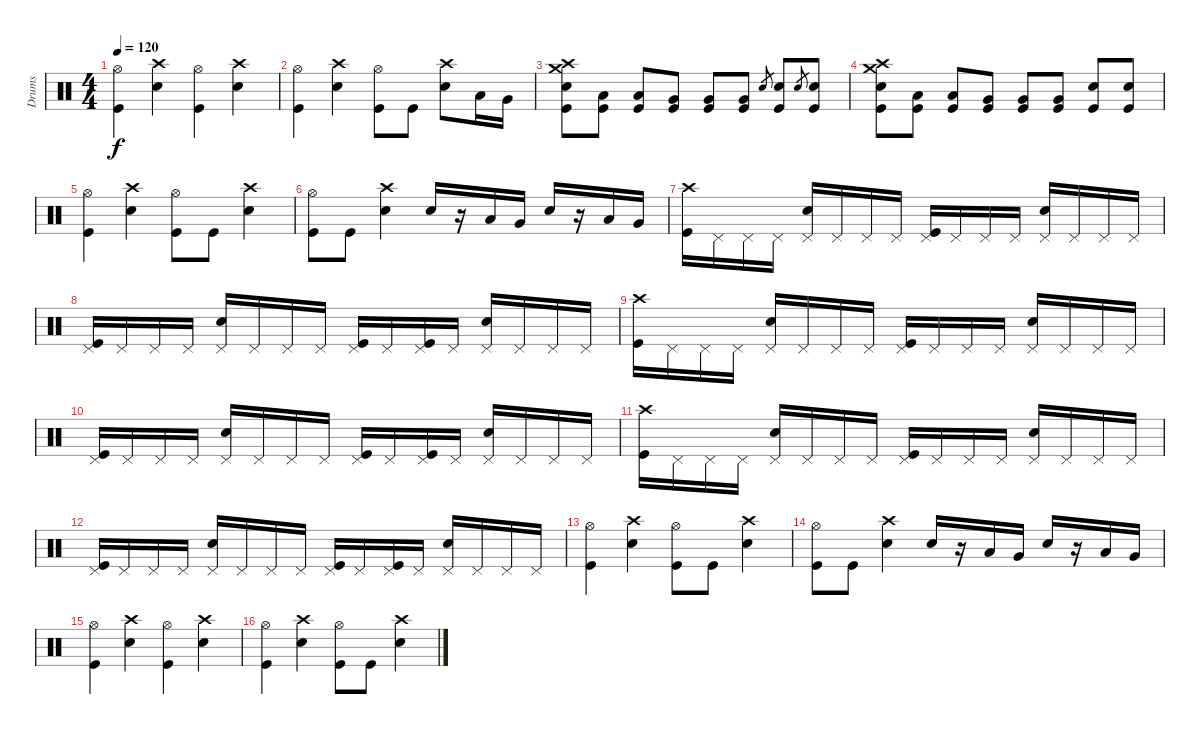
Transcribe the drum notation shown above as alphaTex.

\track ("Drums" "Drums") {instrument percussion}
\staff {score}
\articulation defaults
\ts (4 4)
\tempo 120
\clef neutral
\ks c
("Hi-Hat (open)" "Kick (hit)").4{dy f} ("Crash high (hit)" "Snare (hit) 2").4 ("Hi-Hat (open)" "Kick (hit)").4 ("Crash high (hit)" "Snare (hit) 2").4 |
("Hi-Hat (open)" "Kick (hit)").4 ("Crash high (hit)" "Snare (hit) 2").4 ("Hi-Hat (open)" "Kick (hit)").8 "Kick (hit)".8 ("Crash high (hit)" "Snare (hit) 2").8 "Low Tom (hit)".16 "Very Low Tom (hit)".16 |
("Crash high (hit)" "Crash medium (hit)" "Snare (hit) 2" "Kick (hit)").8 ("Low Tom (hit)" "Kick (hit)").8 ("Low Tom (hit)" "Kick (hit)").8 ("Very Low Tom (hit)" "Kick (hit)").8 ("Very Low Tom (hit)" "Kick (hit)").8 ("Very Low Tom (hit)" "Kick (hit)").8 "Snare (hit) 2".8{gr} ("Snare (hit) 2" "Kick (hit)").8 "Snare (hit) 2".8{gr} ("Snare (hit) 2" "Kick (hit)").8 |
("Crash high (hit)" "Crash medium (hit)" "Snare (hit) 2" "Kick (hit)").8 ("Low Tom (hit)" "Kick (hit)").8 ("Low Tom (hit)" "Kick (hit)").8 ("Very Low Tom (hit)" "Kick (hit)").8 ("Very Low Tom (hit)" "Kick (hit)").8 ("Very Low Tom (hit)" "Kick (hit)").8 ("Snare (hit) 2" "Kick (hit)").8 ("Snare (hit) 2" "Kick (hit)").8 |
("Hi-Hat (open)" "Kick (hit)").4 ("Crash high (hit)" "Snare (hit) 2").4 ("Hi-Hat (open)" "Kick (hit)").8 "Kick (hit)".8 ("Crash high (hit)" "Snare (hit) 2").4 |
("Hi-Hat (open)" "Kick (hit)").8 "Kick (hit)".8 ("Crash high (hit)" "Snare (hit) 2").4 "Snare (hit) 2".16 r.16 "Low Tom (hit)".16 "Very Low Tom (hit)".16 "Snare (hit) 2".16 r.16 "Low Tom (hit)".16 "Very Low Tom (hit)".16 |
("Crash high (hit)" "Kick (hit)").16 "Pedal Hi-Hat (hit)".16 "Pedal Hi-Hat (hit)".16 "Pedal Hi-Hat (hit)".16 ("Pedal Hi-Hat (hit)" "Snare (hit) 2").16 "Pedal Hi-Hat (hit)".16 "Pedal Hi-Hat (hit)".16 "Pedal Hi-Hat (hit)".16 ("Pedal Hi-Hat (hit)" "Kick (hit)").16 "Pedal Hi-Hat (hit)".16 "Pedal Hi-Hat (hit)".16 "Pedal Hi-Hat (hit)".16 ("Pedal Hi-Hat (hit)" "Snare (hit) 2").16 "Pedal Hi-Hat (hit)".16 "Pedal Hi-Hat (hit)".16 "Pedal Hi-Hat (hit)".16 |
("Pedal Hi-Hat (hit)" "Kick (hit)").16 "Pedal Hi-Hat (hit)".16 "Pedal Hi-Hat (hit)".16 "Pedal Hi-Hat (hit)".16 ("Pedal Hi-Hat (hit)" "Snare (hit) 2").16 "Pedal Hi-Hat (hit)".16 "Pedal Hi-Hat (hit)".16 "Pedal Hi-Hat (hit)".16 ("Pedal Hi-Hat (hit)" "Kick (hit)").16 "Pedal Hi-Hat (hit)".16 ("Pedal Hi-Hat (hit)" "Kick (hit)").16 "Pedal Hi-Hat (hit)".16 ("Pedal Hi-Hat (hit)" "Snare (hit) 2").16 "Pedal Hi-Hat (hit)".16 "Pedal Hi-Hat (hit)".16 "Pedal Hi-Hat (hit)".16 |
("Crash high (hit)" "Kick (hit)").16 "Pedal Hi-Hat (hit)".16 "Pedal Hi-Hat (hit)".16 "Pedal Hi-Hat (hit)".16 ("Pedal Hi-Hat (hit)" "Snare (hit) 2").16 "Pedal Hi-Hat (hit)".16 "Pedal Hi-Hat (hit)".16 "Pedal Hi-Hat (hit)".16 ("Pedal Hi-Hat (hit)" "Kick (hit)").16 "Pedal Hi-Hat (hit)".16 "Pedal Hi-Hat (hit)".16 "Pedal Hi-Hat (hit)".16 ("Pedal Hi-Hat (hit)" "Snare (hit) 2").16 "Pedal Hi-Hat (hit)".16 "Pedal Hi-Hat (hit)".16 "Pedal Hi-Hat (hit)".16 |
("Pedal Hi-Hat (hit)" "Kick (hit)").16 "Pedal Hi-Hat (hit)".16 "Pedal Hi-Hat (hit)".16 "Pedal Hi-Hat (hit)".16 ("Pedal Hi-Hat (hit)" "Snare (hit) 2").16 "Pedal Hi-Hat (hit)".16 "Pedal Hi-Hat (hit)".16 "Pedal Hi-Hat (hit)".16 ("Pedal Hi-Hat (hit)" "Kick (hit)").16 "Pedal Hi-Hat (hit)".16 ("Pedal Hi-Hat (hit)" "Kick (hit)").16 "Pedal Hi-Hat (hit)".16 ("Pedal Hi-Hat (hit)" "Snare (hit) 2").16 "Pedal Hi-Hat (hit)".16 "Pedal Hi-Hat (hit)".16 "Pedal Hi-Hat (hit)".16 |
("Crash high (hit)" "Kick (hit)").16 "Pedal Hi-Hat (hit)".16 "Pedal Hi-Hat (hit)".16 "Pedal Hi-Hat (hit)".16 ("Pedal Hi-Hat (hit)" "Snare (hit) 2").16 "Pedal Hi-Hat (hit)".16 "Pedal Hi-Hat (hit)".16 "Pedal Hi-Hat (hit)".16 ("Pedal Hi-Hat (hit)" "Kick (hit)").16 "Pedal Hi-Hat (hit)".16 "Pedal Hi-Hat (hit)".16 "Pedal Hi-Hat (hit)".16 ("Pedal Hi-Hat (hit)" "Snare (hit) 2").16 "Pedal Hi-Hat (hit)".16 "Pedal Hi-Hat (hit)".16 "Pedal Hi-Hat (hit)".16 |
("Pedal Hi-Hat (hit)" "Kick (hit)").16 "Pedal Hi-Hat (hit)".16 "Pedal Hi-Hat (hit)".16 "Pedal Hi-Hat (hit)".16 ("Pedal Hi-Hat (hit)" "Snare (hit) 2").16 "Pedal Hi-Hat (hit)".16 "Pedal Hi-Hat (hit)".16 "Pedal Hi-Hat (hit)".16 ("Pedal Hi-Hat (hit)" "Kick (hit)").16 "Pedal Hi-Hat (hit)".16 ("Pedal Hi-Hat (hit)" "Kick (hit)").16 "Pedal Hi-Hat (hit)".16 ("Pedal Hi-Hat (hit)" "Snare (hit) 2").16 "Pedal Hi-Hat (hit)".16 "Pedal Hi-Hat (hit)".16 "Pedal Hi-Hat (hit)".16 |
("Hi-Hat (open)" "Kick (hit)").4 ("Crash high (hit)" "Snare (hit) 2").4 ("Hi-Hat (open)" "Kick (hit)").8 "Kick (hit)".8 ("Crash high (hit)" "Snare (hit) 2").4 |
("Hi-Hat (open)" "Kick (hit)").8 "Kick (hit)".8 ("Crash high (hit)" "Snare (hit) 2").4 "Snare (hit) 2".16 r.16 "Low Tom (hit)".16 "Very Low Tom (hit)".16 "Snare (hit) 2".16 r.16 "Low Tom (hit)".16 "Very Low Tom (hit)".16 |
("Hi-Hat (open)" "Kick (hit)").4 ("Crash high (hit)" "Snare (hit) 2").4 ("Hi-Hat (open)" "Kick (hit)").4 ("Crash high (hit)" "Snare (hit) 2").4 |
("Hi-Hat (open)" "Kick (hit)").4 ("Crash high (hit)" "Snare (hit) 2").4 ("Hi-Hat (open)" "Kick (hit)").8 "Kick (hit)".8 ("Crash high (hit)" "Snare (hit) 2").4
